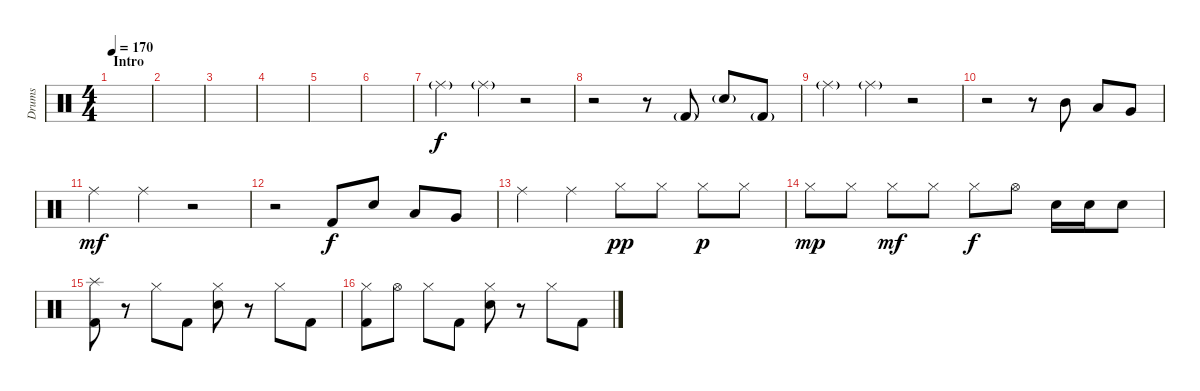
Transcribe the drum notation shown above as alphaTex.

\track ("Drums" "Drums") {instrument percussion}
\staff {score}
\articulation defaults
\ts (4 4)
\section ("" "Intro")
\tempo 170
\clef neutral
\ks c
|
|
|
|
|
|
"Ride (middle)"{g}.4 "Ride (middle)"{g}.4 r.2 |
r.2 r.8 "Kick (hit) 2"{g}.8 "Snare (hit) 2"{g}.8 "Kick (hit) 2"{g}.8 |
"Ride (middle)"{g}.4 "Ride (middle)"{g}.4 r.2 |
r.2 r.8 "Mid Tom (hit)".8{dy f} "Low Tom (hit)".8 "Very Low Tom (hit)".8 |
"Ride (middle)".4{dy mf} "Ride (middle)".4 r.2 |
r.2 "Kick (hit) 2".8{dy f} "Snare (hit) 2".8 "Low Tom (hit)".8 "Very Low Tom (hit)".8 |
"Ride (middle)".4 "Ride (middle)".4 "Hi-Hat (closed)".8{dy pp} "Hi-Hat (closed)".8 "Hi-Hat (closed)".8{dy p} "Hi-Hat (closed)".8 |
"Hi-Hat (closed)".8{dy mp} "Hi-Hat (closed)".8 "Hi-Hat (closed)".8{dy mf} "Hi-Hat (closed)".8 "Hi-Hat (closed)".8{dy f} "Hi-Hat (open)".8 "Snare (hit) 2".16 "Snare (hit) 2".16 "Snare (hit) 2".8 |
("Splash (hit)" "Kick (hit) 2").8 r.8 "Hi-Hat (closed)".8 "Kick (hit) 2".8 ("Snare (hit) 2" "Hi-Hat (closed)").8 r.8 "Hi-Hat (closed)".8 "Kick (hit) 2".8 |
("Hi-Hat (closed)" "Kick (hit) 2").8 "Hi-Hat (open)".8 "Hi-Hat (closed)".8 "Kick (hit) 2".8 ("Snare (hit) 2" "Hi-Hat (closed)").8 r.8 "Hi-Hat (closed)".8 "Kick (hit) 2".8
